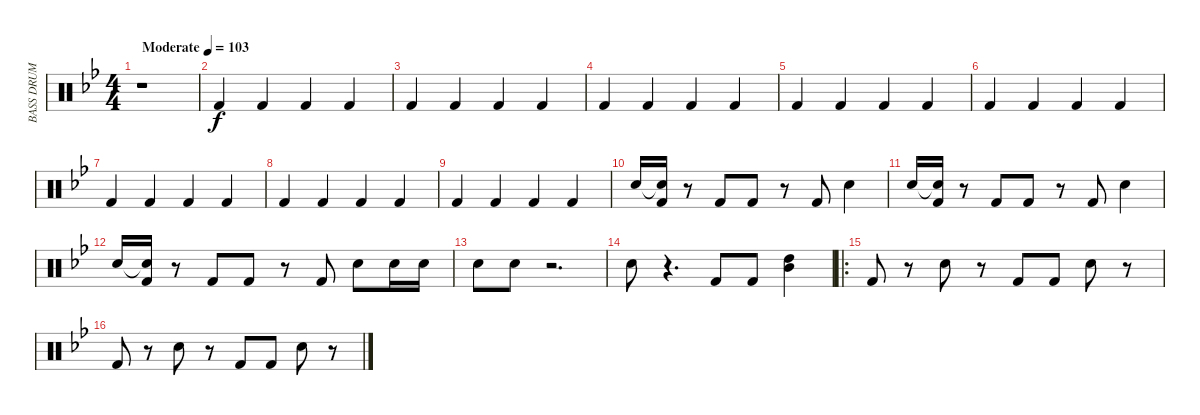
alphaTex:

\track ("BASS DRUM / SNARE / TOMS" "BASS DRUM ") {instrument percussion}
\staff {score}
\articulation defaults
\ts (4 4)
\tempo (103 "Moderate")
\clef neutral
\ks bb
r.1{dy f} |
"Kick (hit) 2".4 "Kick (hit) 2".4 "Kick (hit) 2".4 "Kick (hit) 2".4 |
"Kick (hit) 2".4 "Kick (hit) 2".4 "Kick (hit) 2".4 "Kick (hit) 2".4 |
"Kick (hit) 2".4 "Kick (hit) 2".4 "Kick (hit) 2".4 "Kick (hit) 2".4 |
"Kick (hit) 2".4 "Kick (hit) 2".4 "Kick (hit) 2".4 "Kick (hit) 2".4 |
"Kick (hit) 2".4 "Kick (hit) 2".4 "Kick (hit) 2".4 "Kick (hit) 2".4 |
"Kick (hit) 2".4 "Kick (hit) 2".4 "Kick (hit) 2".4 "Kick (hit) 2".4 |
"Kick (hit) 2".4 "Kick (hit) 2".4 "Kick (hit) 2".4 "Kick (hit) 2".4 |
"Kick (hit) 2".4 "Kick (hit) 2".4 "Kick (hit) 2".4 "Kick (hit) 2".4 |
"Snare (hit) 2".16 ("Snare (hit) 2"{t} "Kick (hit) 2").16 r.8 "Kick (hit) 2".8 "Kick (hit) 2".8 r.8 "Kick (hit) 2".8 "Snare (hit) 2".4 |
"Snare (hit) 2".16 ("Snare (hit) 2"{t} "Kick (hit) 2").16 r.8 "Kick (hit) 2".8 "Kick (hit) 2".8 r.8 "Kick (hit) 2".8 "Snare (hit) 2".4 |
"Snare (hit) 2".16 ("Snare (hit) 2"{t} "Kick (hit) 2").16 r.8 "Kick (hit) 2".8 "Kick (hit) 2".8 r.8 "Kick (hit) 2".8 "Snare (hit) 2".8 "Snare (hit) 2".16 "Snare (hit) 2".16 |
"Snare (hit) 2".8 "Electric Snare (hit)".8 r.2{d} |
"Snare (hit) 2".8 r.4{d} "Kick (hit) 2".8 "Kick (hit) 2".8 ("High Tom (hit)" "Mid Tom (hit)").4 |
\ro "Kick (hit) 2".8
r.8 "Snare (hit) 2".8 r.8 "Kick (hit) 2".8 "Kick (hit) 2".8 "Snare (hit) 2".8 r.8 |
"Kick (hit) 2".8 r.8 "Snare (hit) 2".8 r.8 "Kick (hit) 2".8 "Kick (hit) 2".8 "Snare (hit) 2".8 r.8
